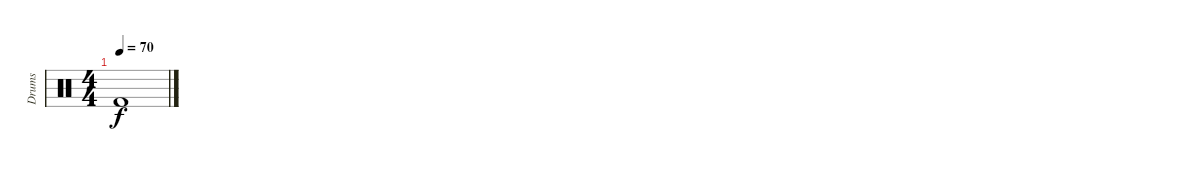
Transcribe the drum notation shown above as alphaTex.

\track ("Drums" "Drums") {instrument percussion}
\staff {score}
\articulation defaults
\ts (4 4)
\tempo 70
\clef neutral
\ks c "Kick (hit) 2".1{dy f}
